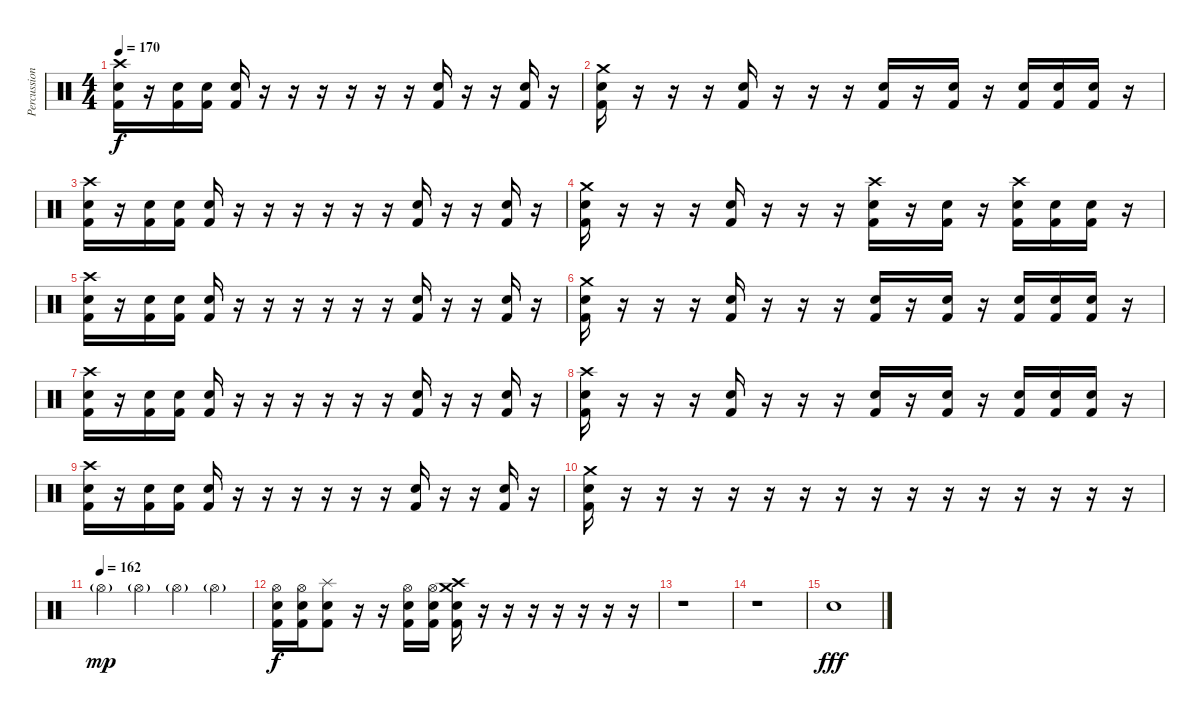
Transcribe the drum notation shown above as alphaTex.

\track ("Percussion" "Percussion") {instrument percussion}
\staff {score}
\articulation defaults
\ts (4 4)
\tempo 170
\clef neutral
\ks c
("Crash high (hit)" "Electric Snare (hit)" "Kick (hit) 2").16{dy f} r.16 ("Electric Snare (hit)" "Kick (hit) 2").16 ("Electric Snare (hit)" "Kick (hit) 2").16 ("Electric Snare (hit)" "Kick (hit) 2").16 r.16 r.16 r.16 r.16 r.16 r.16 ("Electric Snare (hit)" "Kick (hit) 2").16 r.16 r.16 ("Electric Snare (hit)" "Kick (hit) 2").16 r.16 |
("Crash medium (hit)" "Electric Snare (hit)" "Kick (hit) 2").16 r.16 r.16 r.16 ("Electric Snare (hit)" "Kick (hit) 2").16 r.16 r.16 r.16 ("Electric Snare (hit)" "Kick (hit) 2").16 r.16 ("Electric Snare (hit)" "Kick (hit) 2").16 r.16 ("Electric Snare (hit)" "Kick (hit) 2").16 ("Electric Snare (hit)" "Kick (hit) 2").16 ("Electric Snare (hit)" "Kick (hit) 2").16 r.16 |
("Crash high (hit)" "Electric Snare (hit)" "Kick (hit) 2").16 r.16 ("Electric Snare (hit)" "Kick (hit) 2").16 ("Electric Snare (hit)" "Kick (hit) 2").16 ("Electric Snare (hit)" "Kick (hit) 2").16 r.16 r.16 r.16 r.16 r.16 r.16 ("Electric Snare (hit)" "Kick (hit) 2").16 r.16 r.16 ("Electric Snare (hit)" "Kick (hit) 2").16 r.16 |
("Crash medium (hit)" "Electric Snare (hit)" "Kick (hit) 2").16 r.16 r.16 r.16 ("Electric Snare (hit)" "Kick (hit) 2").16 r.16 r.16 r.16 ("Crash high (hit)" "Electric Snare (hit)" "Kick (hit) 2").16 r.16 ("Electric Snare (hit)" "Kick (hit) 2").16 r.16 ("Crash high (hit)" "Electric Snare (hit)" "Kick (hit) 2").16 ("Electric Snare (hit)" "Kick (hit) 2").16 ("Electric Snare (hit)" "Kick (hit) 2").16 r.16 |
("Crash high (hit)" "Electric Snare (hit)" "Kick (hit) 2").16 r.16 ("Electric Snare (hit)" "Kick (hit) 2").16 ("Electric Snare (hit)" "Kick (hit) 2").16 ("Electric Snare (hit)" "Kick (hit) 2").16 r.16 r.16 r.16 r.16 r.16 r.16 ("Electric Snare (hit)" "Kick (hit) 2").16 r.16 r.16 ("Electric Snare (hit)" "Kick (hit) 2").16 r.16 |
("Crash medium (hit)" "Electric Snare (hit)" "Kick (hit) 2").16 r.16 r.16 r.16 ("Electric Snare (hit)" "Kick (hit) 2").16 r.16 r.16 r.16 ("Electric Snare (hit)" "Kick (hit) 2").16 r.16 ("Electric Snare (hit)" "Kick (hit) 2").16 r.16 ("Electric Snare (hit)" "Kick (hit) 2").16 ("Electric Snare (hit)" "Kick (hit) 2").16 ("Electric Snare (hit)" "Kick (hit) 2").16 r.16 |
("Crash high (hit)" "Electric Snare (hit)" "Kick (hit) 2").16 r.16 ("Electric Snare (hit)" "Kick (hit) 2").16 ("Electric Snare (hit)" "Kick (hit) 2").16 ("Electric Snare (hit)" "Kick (hit) 2").16 r.16 r.16 r.16 r.16 r.16 r.16 ("Electric Snare (hit)" "Kick (hit) 2").16 r.16 r.16 ("Electric Snare (hit)" "Kick (hit) 2").16 r.16 |
("Crash high (hit)" "Electric Snare (hit)" "Kick (hit) 2").16 r.16 r.16 r.16 ("Electric Snare (hit)" "Kick (hit) 2").16 r.16 r.16 r.16 ("Electric Snare (hit)" "Kick (hit) 2").16 r.16 ("Electric Snare (hit)" "Kick (hit) 2").16 r.16 ("Electric Snare (hit)" "Kick (hit) 2").16 ("Electric Snare (hit)" "Kick (hit) 2").16 ("Electric Snare (hit)" "Kick (hit) 2").16 r.16 |
("Crash high (hit)" "Electric Snare (hit)" "Kick (hit) 2").16 r.16 ("Electric Snare (hit)" "Kick (hit) 2").16 ("Electric Snare (hit)" "Kick (hit) 2").16 ("Electric Snare (hit)" "Kick (hit) 2").16 r.16 r.16 r.16 r.16 r.16 r.16 ("Electric Snare (hit)" "Kick (hit) 2").16 r.16 r.16 ("Electric Snare (hit)" "Kick (hit) 2").16 r.16 |
("Crash medium (hit)" "Electric Snare (hit)" "Kick (hit) 2").16 r.16 r.16 r.16 r.16 r.16 r.16 r.16 r.16 r.16 r.16 r.16 r.16 r.16 r.16 r.16 |
\tempo (162)
"Hi-Hat (open)"{g}.4{dy mp} "Hi-Hat (open)"{g}.4 "Hi-Hat (open)"{g}.4 "Hi-Hat (open)"{g}.4 |
("Hi-Hat (open)" "Electric Snare (hit)" "Kick (hit) 2").16{dy f} ("Hi-Hat (open)" "Electric Snare (hit)" "Kick (hit) 2").16 ("Splash (hit)" "Electric Snare (hit)" "Kick (hit) 2").8 r.16 r.16 ("Hi-Hat (open)" "Electric Snare (hit)" "Kick (hit) 2").16 ("Hi-Hat (open)" "Electric Snare (hit)" "Kick (hit) 2").16 ("Crash high (hit)" "Crash medium (hit)" "Electric Snare (hit)" "Kick (hit) 2").16 r.16 r.16 r.16 r.16 r.16 r.16 r.16 |
r.1 |
r.1 |
"Snare (hit)".1{dy fff}
